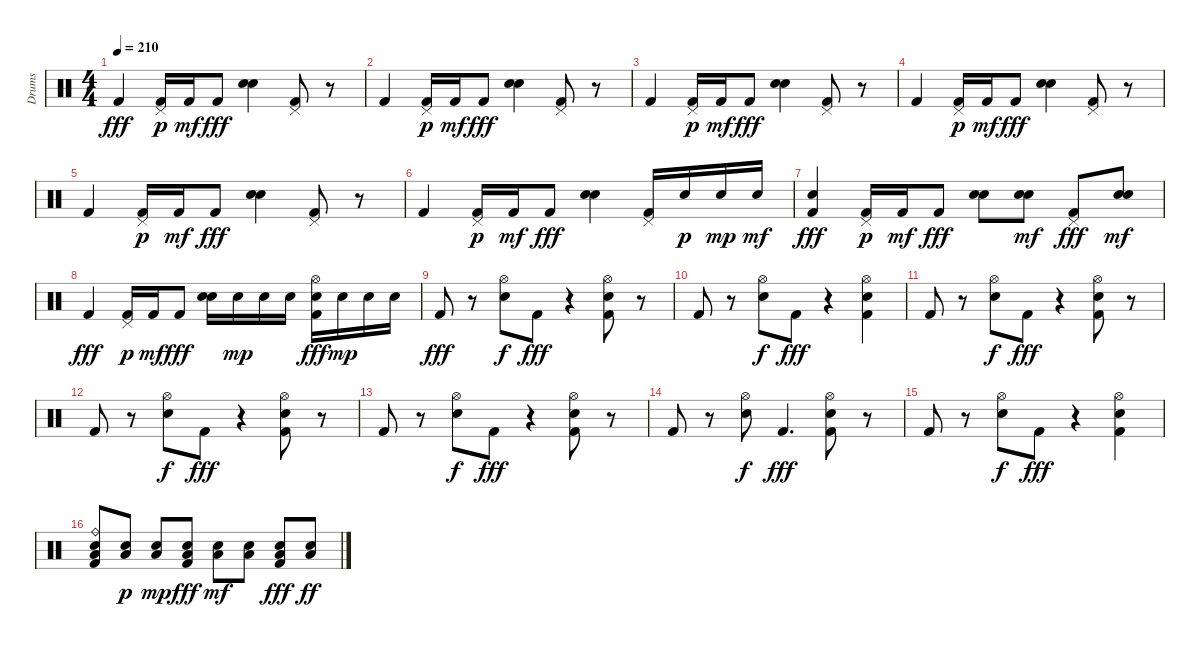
\track ("Drums" "Drums") {instrument percussion}
\staff {score}
\articulation defaults
\ts (4 4)
\tempo 210
\clef neutral
\ks c "Kick (hit) 2".4{dy fff}
("Pedal Hi-Hat (hit)" "Kick (hit) 2").16{dy p} "Kick (hit) 2".16{dy mf} "Kick (hit) 2".8{dy fff} ("Snare (hit) 2" "Electric Snare (hit)").4 ("Pedal Hi-Hat (hit)" "Kick (hit) 2").8 r.8 |
"Kick (hit) 2".4 ("Pedal Hi-Hat (hit)" "Kick (hit) 2").16{dy p} "Kick (hit) 2".16{dy mf} "Kick (hit) 2".8{dy fff} ("Snare (hit) 2" "Electric Snare (hit)").4 ("Pedal Hi-Hat (hit)" "Kick (hit) 2").8 r.8 |
"Kick (hit) 2".4 ("Pedal Hi-Hat (hit)" "Kick (hit) 2").16{dy p} "Kick (hit) 2".16{dy mf} "Kick (hit) 2".8{dy fff} ("Snare (hit) 2" "Electric Snare (hit)").4 ("Pedal Hi-Hat (hit)" "Kick (hit) 2").8 r.8 |
"Kick (hit) 2".4 ("Pedal Hi-Hat (hit)" "Kick (hit) 2").16{dy p} "Kick (hit) 2".16{dy mf} "Kick (hit) 2".8{dy fff} ("Snare (hit) 2" "Electric Snare (hit)").4 ("Pedal Hi-Hat (hit)" "Kick (hit) 2").8 r.8 |
"Kick (hit) 2".4 ("Pedal Hi-Hat (hit)" "Kick (hit) 2").16{dy p} "Kick (hit) 2".16{dy mf} "Kick (hit) 2".8{dy fff} ("Snare (hit) 2" "Electric Snare (hit)").4 ("Pedal Hi-Hat (hit)" "Kick (hit) 2").8 r.8 |
"Kick (hit) 2".4 ("Pedal Hi-Hat (hit)" "Kick (hit) 2").16{dy p} "Kick (hit) 2".16{dy mf} "Kick (hit) 2".8{dy fff} ("Snare (hit) 2" "Electric Snare (hit)").4 ("Pedal Hi-Hat (hit)" "Kick (hit) 2").16 "Electric Snare (hit)".16{dy p} "Electric Snare (hit)".16{dy mp} "Electric Snare (hit)".16{dy mf} |
("Electric Snare (hit)" "Kick (hit) 2").4{dy fff} ("Pedal Hi-Hat (hit)" "Kick (hit) 2").16{dy p} "Kick (hit) 2".16{dy mf} "Kick (hit) 2".8{dy fff} ("Snare (hit) 2" "Electric Snare (hit)").8 ("Electric Snare (hit)" "Snare (hit) 2").8{dy mf} ("Pedal Hi-Hat (hit)" "Kick (hit) 2").8{dy fff} ("Snare (hit) 2" "Electric Snare (hit)").8{dy mf} |
"Kick (hit) 2".4{dy fff} ("Pedal Hi-Hat (hit)" "Kick (hit) 2").16{dy p} "Kick (hit) 2".16{dy mf} "Kick (hit) 2".8{dy fff} ("Snare (hit) 2" "Electric Snare (hit)").16 "Electric Snare (hit)".16{dy mp} "Electric Snare (hit)".16 "Electric Snare (hit)".16 ("Hi-Hat (open)" "Electric Snare (hit)" "Kick (hit) 2").16{dy fff} "Electric Snare (hit)".16{dy mp} "Electric Snare (hit)".16 "Electric Snare (hit)".16 |
"Kick (hit) 2".8{dy fff} r.8 ("Hi-Hat (open)" "Electric Snare (hit)").8{dy f} "Kick (hit) 2".8{dy fff} r.4 ("Hi-Hat (open)" "Electric Snare (hit)" "Kick (hit) 2").8 r.8 |
"Kick (hit) 2".8 r.8 ("Hi-Hat (open)" "Electric Snare (hit)").8{dy f} "Kick (hit) 2".8{dy fff} r.4 ("Hi-Hat (open)" "Electric Snare (hit)" "Kick (hit) 2").4 |
"Kick (hit) 2".8 r.8 ("Hi-Hat (open)" "Electric Snare (hit)").8{dy f} "Kick (hit) 2".8{dy fff} r.4 ("Hi-Hat (open)" "Electric Snare (hit)" "Kick (hit) 2").8 r.8 |
"Kick (hit) 2".8 r.8 ("Hi-Hat (open)" "Electric Snare (hit)").8{dy f} "Kick (hit) 2".8{dy fff} r.4 ("Hi-Hat (open)" "Electric Snare (hit)" "Kick (hit) 2").8 r.8 |
"Kick (hit) 2".8 r.8 ("Hi-Hat (open)" "Electric Snare (hit)").8{dy f} "Kick (hit) 2".8{dy fff} r.4 ("Hi-Hat (open)" "Electric Snare (hit)" "Kick (hit) 2").8 r.8 |
"Kick (hit) 2".8 r.8 ("Hi-Hat (open)" "Electric Snare (hit)").8{dy f} "Kick (hit) 2".4{d dy fff} ("Hi-Hat (open)" "Electric Snare (hit)" "Kick (hit) 2").8 r.8 |
"Kick (hit) 2".8 r.8 ("Hi-Hat (open)" "Electric Snare (hit)").8{dy f} "Kick (hit) 2".8{dy fff} r.4 ("Hi-Hat (open)" "Electric Snare (hit)" "Kick (hit) 2").4 |
("Ride (bell)" "Low Tom (hit)" "Electric Snare (hit)" "Kick (hit) 2").8 ("Low Tom (hit)" "Electric Snare (hit)").8{dy p} ("Low Tom (hit)" "Electric Snare (hit)").8{dy mp} ("Low Tom (hit)" "Electric Snare (hit)" "Kick (hit) 2").8{dy fff} ("Low Tom (hit)" "Electric Snare (hit)").8{dy mf} ("Low Tom (hit)" "Electric Snare (hit)").8 ("Low Tom (hit)" "Electric Snare (hit)" "Kick (hit) 2").8{dy fff} ("Low Tom (hit)" "Electric Snare (hit)").8{dy ff}
